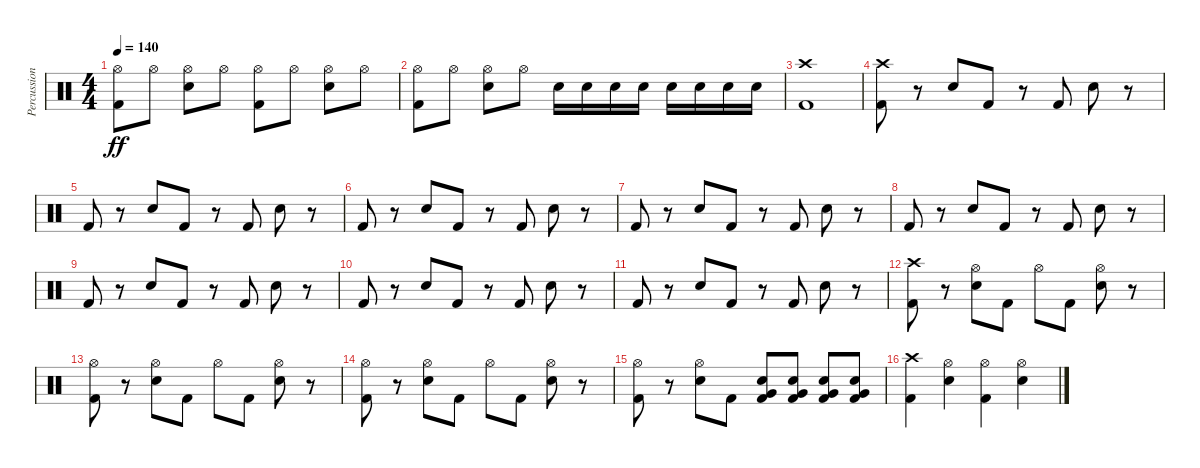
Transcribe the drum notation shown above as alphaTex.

\track ("Percussion" "Percussion") {instrument percussion}
\staff {score}
\articulation defaults
\ts (4 4)
\tempo 140
\clef neutral
\ks c
("Hi-Hat (open)" "Kick (hit) 2").8{dy ff} "Hi-Hat (open)".8 ("Hi-Hat (open)" "Snare (hit) 2").8 "Hi-Hat (open)".8 ("Hi-Hat (open)" "Kick (hit) 2").8 "Hi-Hat (open)".8 ("Hi-Hat (open)" "Snare (hit) 2").8 "Hi-Hat (open)".8 |
("Hi-Hat (open)" "Kick (hit) 2").8 "Hi-Hat (open)".8 ("Hi-Hat (open)" "Snare (hit) 2").8 "Hi-Hat (open)".8 "Snare (hit) 2".16 "Snare (hit) 2".16 "Snare (hit) 2".16 "Snare (hit) 2".16 "Snare (hit) 2".16 "Snare (hit) 2".16 "Snare (hit) 2".16 "Snare (hit) 2".16 |
("Crash high (hit)" "Kick (hit) 2").1 |
("Crash high (hit)" "Kick (hit) 2").8 r.8 "Electric Snare (hit)".8 "Kick (hit) 2".8 r.8 "Kick (hit) 2".8 "Electric Snare (hit)".8 r.8 |
"Kick (hit) 2".8 r.8 "Electric Snare (hit)".8 "Kick (hit) 2".8 r.8 "Kick (hit) 2".8 "Electric Snare (hit)".8 r.8 |
"Kick (hit) 2".8 r.8 "Electric Snare (hit)".8 "Kick (hit) 2".8 r.8 "Kick (hit) 2".8 "Electric Snare (hit)".8 r.8 |
"Kick (hit) 2".8 r.8 "Electric Snare (hit)".8 "Kick (hit) 2".8 r.8 "Kick (hit) 2".8 "Electric Snare (hit)".8 r.8 |
"Kick (hit) 2".8 r.8 "Electric Snare (hit)".8 "Kick (hit) 2".8 r.8 "Kick (hit) 2".8 "Electric Snare (hit)".8 r.8 |
"Kick (hit) 2".8 r.8 "Electric Snare (hit)".8 "Kick (hit) 2".8 r.8 "Kick (hit) 2".8 "Electric Snare (hit)".8 r.8 |
"Kick (hit) 2".8 r.8 "Electric Snare (hit)".8 "Kick (hit) 2".8 r.8 "Kick (hit) 2".8 "Electric Snare (hit)".8 r.8 |
"Kick (hit) 2".8 r.8 "Electric Snare (hit)".8 "Kick (hit) 2".8 r.8 "Kick (hit) 2".8 "Electric Snare (hit)".8 r.8 |
("Crash high (hit)" "Kick (hit) 2").8 r.8 ("Hi-Hat (open)" "Electric Snare (hit)").8 "Kick (hit) 2".8 "Hi-Hat (open)".8 "Kick (hit) 2".8 ("Hi-Hat (open)" "Electric Snare (hit)").8 r.8 |
("Hi-Hat (open)" "Kick (hit) 2").8 r.8 ("Hi-Hat (open)" "Electric Snare (hit)").8 "Kick (hit) 2".8 "Hi-Hat (open)".8 "Kick (hit) 2".8 ("Hi-Hat (open)" "Electric Snare (hit)").8 r.8 |
("Hi-Hat (open)" "Kick (hit) 2").8 r.8 ("Hi-Hat (open)" "Electric Snare (hit)").8 "Kick (hit) 2".8 "Hi-Hat (open)".8 "Kick (hit) 2".8 ("Hi-Hat (open)" "Electric Snare (hit)").8 r.8 |
("Hi-Hat (open)" "Kick (hit) 2").8 r.8 ("Hi-Hat (open)" "Electric Snare (hit)").8 "Kick (hit) 2".8 ("Very Low Tom (hit)" "Electric Snare (hit)" "Kick (hit) 2").8 ("Very Low Tom (hit)" "Electric Snare (hit)" "Kick (hit) 2").8 ("Very Low Tom (hit)" "Electric Snare (hit)" "Kick (hit) 2").8 ("Very Low Tom (hit)" "Electric Snare (hit)" "Kick (hit) 2").8 |
("Crash high (hit)" "Kick (hit) 2").4 ("Hi-Hat (open)" "Snare (hit) 2").4 ("Hi-Hat (open)" "Kick (hit) 2").4 ("Hi-Hat (open)" "Snare (hit) 2").4
